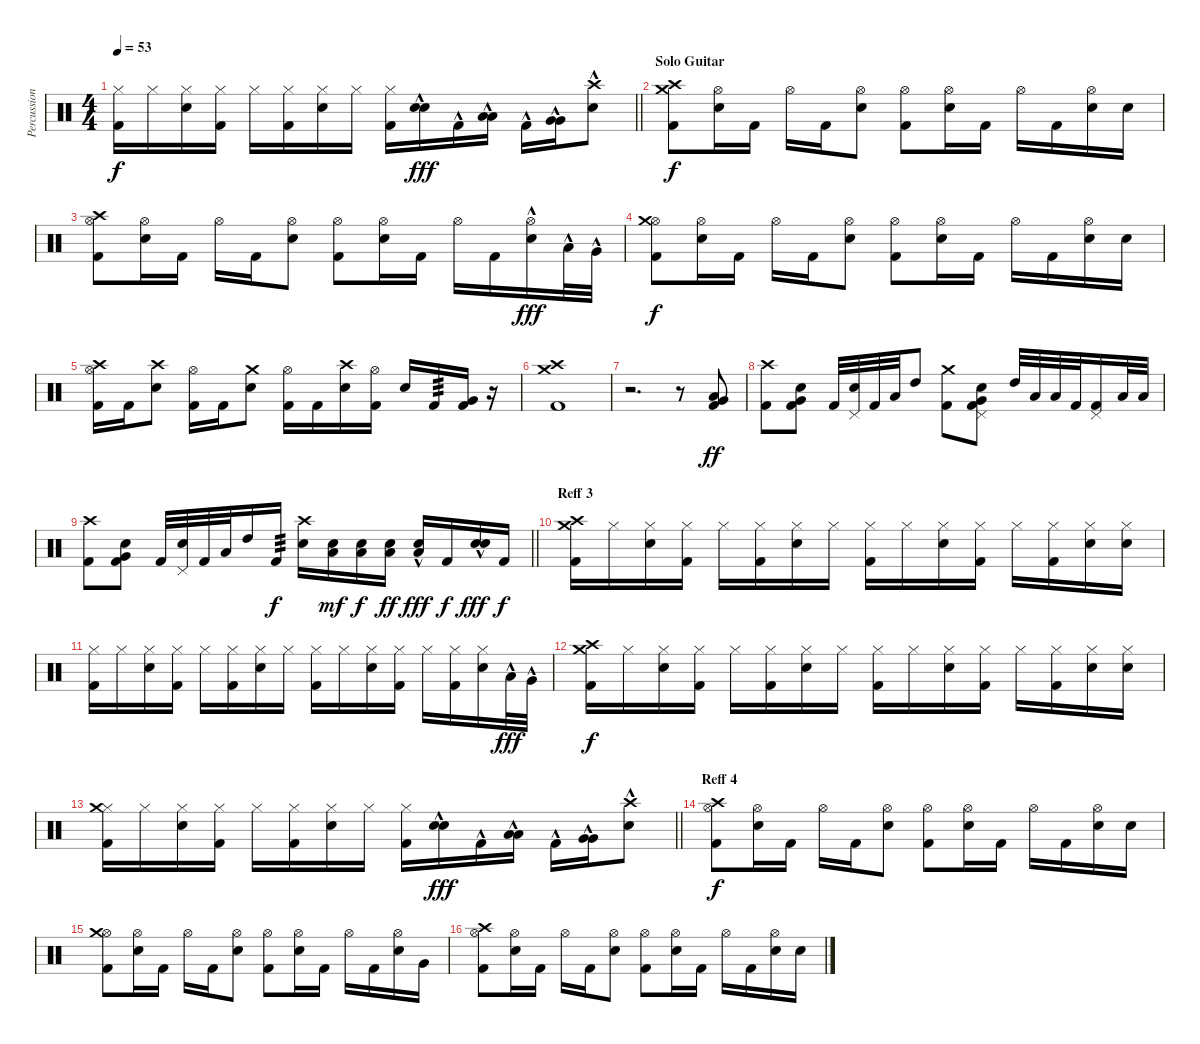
\track ("Percussion" "Percussion") {instrument percussion}
\staff {score}
\articulation defaults
\ts (4 4)
\tempo 53
\clef neutral
\barLineRight lightlight
\ks c
("Hi-Hat (closed)" "Kick (hit) 2").16{dy f} "Hi-Hat (closed)".16 ("Hi-Hat (closed)" "Electric Snare (hit)").16 ("Hi-Hat (closed)" "Kick (hit) 2").16 "Hi-Hat (closed)".16 ("Hi-Hat (closed)" "Kick (hit) 2").16 ("Hi-Hat (closed)" "Electric Snare (hit)").16 "Hi-Hat (closed)".16 ("Hi-Hat (closed)" "Kick (hit) 2").16 ("Electric Snare (hit)"{hac} "Electric Snare (hit)"{hac}).16{bd 60 dy fff} "Kick (hit) 2"{hac}.16 ("Low Tom (hit)"{hac} "Low Tom (hit)"{hac}).16{bd 60} "Kick (hit) 2"{hac}.16 ("Very Low Tom (hit)"{hac} "Very Low Tom (hit)"{hac}).16{bd 60} ("Electric Snare (hit)"{hac} "Crash high (hit)"{hac}).8 |
\section ("" "Solo Guitar")
("Crash high (hit)" "Crash medium (hit)" "Kick (hit) 2").8{dy f} ("Hi-Hat (open)" "Electric Snare (hit)").16 "Kick (hit) 2".16 "Hi-Hat (open)".16 "Kick (hit) 2".16 ("Hi-Hat (open)" "Electric Snare (hit)").8 ("Hi-Hat (open)" "Kick (hit) 2").8 ("Hi-Hat (open)" "Electric Snare (hit)").16 "Kick (hit) 2".16 "Hi-Hat (open)".16 "Kick (hit) 2".16 ("Hi-Hat (open)" "Electric Snare (hit)").16 "Electric Snare (hit)".16 |
("Hi-Hat (open)" "Crash high (hit)" "Kick (hit) 2").8 ("Hi-Hat (open)" "Electric Snare (hit)").16 "Kick (hit) 2".16 "Hi-Hat (open)".16 "Kick (hit) 2".16 ("Hi-Hat (open)" "Electric Snare (hit)").8 ("Hi-Hat (open)" "Kick (hit) 2").8 ("Hi-Hat (open)" "Electric Snare (hit)").16 "Kick (hit) 2".16 "Hi-Hat (open)".16 "Kick (hit) 2".16 ("Hi-Hat (open)"{hac} "Electric Snare (hit)"{hac}).16{dy fff} "Low Tom (hit)"{hac}.32 "Very Low Tom (hit)"{hac}.32 |
("Hi-Hat (open)" "Crash medium (hit)" "Kick (hit) 2").8{dy f} ("Hi-Hat (open)" "Electric Snare (hit)").16 "Kick (hit) 2".16 "Hi-Hat (open)".16 "Kick (hit) 2".16 ("Hi-Hat (open)" "Electric Snare (hit)").8 ("Hi-Hat (open)" "Kick (hit) 2").8 ("Hi-Hat (open)" "Electric Snare (hit)").16 "Kick (hit) 2".16 "Hi-Hat (open)".16 "Kick (hit) 2".16 ("Hi-Hat (open)" "Electric Snare (hit)").16 "Electric Snare (hit)".16 |
("Hi-Hat (open)" "Crash high (hit)" "Kick (hit) 2").16 "Kick (hit) 2".16 ("Crash high (hit)" "Electric Snare (hit)").8 ("Hi-Hat (open)" "Kick (hit) 2").16 "Kick (hit) 2".16 ("Crash medium (hit)" "Electric Snare (hit)").8 ("Hi-Hat (open)" "Kick (hit) 2").16 "Kick (hit) 2".16 ("Crash high (hit)" "Electric Snare (hit)").16 ("Hi-Hat (open)" "Kick (hit) 2").16 "Electric Snare (hit)".16 "Kick (hit) 2".16{tp 3} ("Very Low Tom (hit)" "Kick (hit) 2").16 r.16 |
("Crash high (hit)" "Crash medium (hit)" "Kick (hit) 2").1 |
r.2{d} r.8 ("Low Floor Tom (hit)" "Very Low Tom (hit)" "Kick (hit) 2").8{dy ff} |
("Crash high (hit)" "Kick (hit) 2").8 ("Electric Snare (hit)" "Very Low Tom (hit)" "Kick (hit) 2").8 "Kick (hit) 2".32 ("Pedal Hi-Hat (hit)" "Electric Snare (hit)").32 "Kick (hit) 2".32 "Low Tom (hit)".32 "High Tom (hit)".8 ("Crash medium (hit)" "Kick (hit) 2").8 ("Pedal Hi-Hat (hit)" "Electric Snare (hit)" "Very Low Tom (hit)" "Kick (hit) 2").8 "High Tom (hit)".32 "Low Tom (hit)".32 "Low Floor Tom (hit)".32 "Kick (hit) 2".32 ("Pedal Hi-Hat (hit)" "Kick (hit) 2").16 "Low Tom (hit)".32 "Low Tom (hit)".32 |
\barLineRight lightlight
("Crash high (hit)" "Kick (hit) 2").8 ("Electric Snare (hit)" "Very Low Tom (hit)" "Kick (hit) 2").8 "Kick (hit) 2".32 ("Pedal Hi-Hat (hit)" "Electric Snare (hit)").32 "Kick (hit) 2".32 "Low Tom (hit)".32 "High Tom (hit)".16 "Kick (hit) 2".16{tp 3 dy f} ("Electric Snare (hit)" "Crash high (hit)").16 ("Electric Snare (hit)" "Low Floor Tom (hit)").16{dy mf} ("Electric Snare (hit)" "Low Floor Tom (hit)").16{dy f} ("Electric Snare (hit)" "Low Floor Tom (hit)").16{dy ff} ("Electric Snare (hit)"{hac} "Low Floor Tom (hit)"{hac}).16{dy fff} "Kick (hit) 2".16{dy f} ("Electric Snare (hit)"{hac} "Electric Snare (hit)"{hac}).16{bd 60 dy fff} "Kick (hit) 2".16{dy f} |
\section ("" "Reff 3")
("Crash high (hit)" "Crash medium (hit)" "Kick (hit) 2").16 "Hi-Hat (closed)".16 ("Hi-Hat (closed)" "Electric Snare (hit)").16 ("Hi-Hat (closed)" "Kick (hit) 2").16 "Hi-Hat (closed)".16 ("Hi-Hat (closed)" "Kick (hit) 2").16 ("Hi-Hat (closed)" "Electric Snare (hit)").16 "Hi-Hat (closed)".16 ("Hi-Hat (closed)" "Kick (hit) 2").16 "Hi-Hat (closed)".16 ("Hi-Hat (closed)" "Electric Snare (hit)").16 ("Hi-Hat (closed)" "Kick (hit) 2").16 "Hi-Hat (closed)".16 ("Hi-Hat (closed)" "Kick (hit) 2").16 ("Hi-Hat (closed)" "Electric Snare (hit)").16 ("Hi-Hat (closed)" "Electric Snare (hit)").16 |
("Hi-Hat (closed)" "Kick (hit) 2").16 "Hi-Hat (closed)".16 ("Hi-Hat (closed)" "Electric Snare (hit)").16 ("Hi-Hat (closed)" "Kick (hit) 2").16 "Hi-Hat (closed)".16 ("Hi-Hat (closed)" "Kick (hit) 2").16 ("Hi-Hat (closed)" "Electric Snare (hit)").16 "Hi-Hat (closed)".16 ("Hi-Hat (closed)" "Kick (hit) 2").16 "Hi-Hat (closed)".16 ("Hi-Hat (closed)" "Electric Snare (hit)").16 ("Hi-Hat (closed)" "Kick (hit) 2").16 "Hi-Hat (closed)".16 ("Hi-Hat (closed)" "Kick (hit) 2").16 ("Hi-Hat (closed)" "Electric Snare (hit)").16 "Low Tom (hit)"{hac}.32{dy fff} "Very Low Tom (hit)"{hac}.32 |
("Crash high (hit)" "Crash medium (hit)" "Kick (hit) 2").16{dy f} "Hi-Hat (closed)".16 ("Hi-Hat (closed)" "Electric Snare (hit)").16 ("Hi-Hat (closed)" "Kick (hit) 2").16 "Hi-Hat (closed)".16 ("Hi-Hat (closed)" "Kick (hit) 2").16 ("Hi-Hat (closed)" "Electric Snare (hit)").16 "Hi-Hat (closed)".16 ("Hi-Hat (closed)" "Kick (hit) 2").16 "Hi-Hat (closed)".16 ("Hi-Hat (closed)" "Electric Snare (hit)").16 ("Hi-Hat (closed)" "Kick (hit) 2").16 "Hi-Hat (closed)".16 ("Hi-Hat (closed)" "Kick (hit) 2").16 ("Hi-Hat (closed)" "Electric Snare (hit)").16 ("Hi-Hat (closed)" "Electric Snare (hit)").16 |
\barLineRight lightlight
("Hi-Hat (closed)" "Crash medium (hit)" "Kick (hit) 2").16 "Hi-Hat (closed)".16 ("Hi-Hat (closed)" "Electric Snare (hit)").16 ("Hi-Hat (closed)" "Kick (hit) 2").16 "Hi-Hat (closed)".16 ("Hi-Hat (closed)" "Kick (hit) 2").16 ("Hi-Hat (closed)" "Electric Snare (hit)").16 "Hi-Hat (closed)".16 ("Hi-Hat (closed)" "Kick (hit) 2").16 ("Electric Snare (hit)"{hac} "Electric Snare (hit)"{hac}).16{bd 60 dy fff} "Kick (hit) 2"{hac}.16 ("Low Tom (hit)"{hac} "Low Tom (hit)"{hac}).16{bd 60} "Kick (hit) 2"{hac}.16 ("Very Low Tom (hit)"{hac} "Very Low Tom (hit)"{hac}).16{bd 60} ("Electric Snare (hit)"{hac} "Crash high (hit)"{hac}).8 |
\section ("" "Reff 4")
("Hi-Hat (open)" "Crash high (hit)" "Kick (hit) 2").8{dy f} ("Hi-Hat (open)" "Electric Snare (hit)").16 "Kick (hit) 2".16 "Hi-Hat (open)".16 "Kick (hit) 2".16 ("Hi-Hat (open)" "Electric Snare (hit)").8 ("Hi-Hat (open)" "Kick (hit) 2").8 ("Hi-Hat (open)" "Electric Snare (hit)").16 "Kick (hit) 2".16 "Hi-Hat (open)".16 "Kick (hit) 2".16 ("Hi-Hat (open)" "Electric Snare (hit)").16 "Electric Snare (hit)".16 |
("Hi-Hat (open)" "Crash medium (hit)" "Kick (hit) 2").8 ("Hi-Hat (open)" "Electric Snare (hit)").16 "Kick (hit) 2".16 "Hi-Hat (open)".16 "Kick (hit) 2".16 ("Hi-Hat (open)" "Electric Snare (hit)").8 ("Hi-Hat (open)" "Kick (hit) 2").8 ("Hi-Hat (open)" "Electric Snare (hit)").16 "Kick (hit) 2".16 "Hi-Hat (open)".16 "Kick (hit) 2".16 ("Hi-Hat (open)" "Electric Snare (hit)").16 "Very Low Tom (hit)".16 |
("Hi-Hat (open)" "Crash high (hit)" "Kick (hit) 2").8 ("Hi-Hat (open)" "Electric Snare (hit)").16 "Kick (hit) 2".16 "Hi-Hat (open)".16 "Kick (hit) 2".16 ("Hi-Hat (open)" "Electric Snare (hit)").8 ("Hi-Hat (open)" "Kick (hit) 2").8 ("Hi-Hat (open)" "Electric Snare (hit)").16 "Kick (hit) 2".16 "Hi-Hat (open)".16 "Kick (hit) 2".16 ("Hi-Hat (open)" "Electric Snare (hit)").16 "Electric Snare (hit)".16
